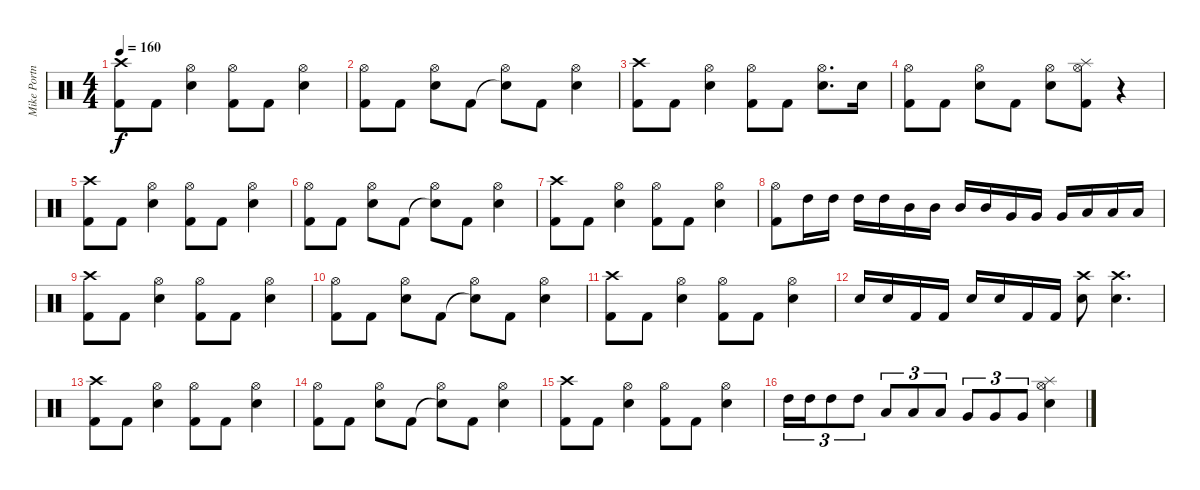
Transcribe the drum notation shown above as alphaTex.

\track ("Mike Portnoy" "Mike Portn") {instrument percussion}
\staff {score}
\articulation defaults
\ts (4 4)
\tempo 160
\clef neutral
\ks c
("Kick (hit) 2" "Crash high (hit)").8{dy f} "Kick (hit) 2".8 ("Electric Snare (hit)" "Hi-Hat (open)").4 ("Kick (hit) 2" "Hi-Hat (open)").8 "Kick (hit) 2".8 ("Electric Snare (hit)" "Hi-Hat (open)").4 |
("Kick (hit) 2" "Hi-Hat (open)").8 "Kick (hit) 2".8 ("Electric Snare (hit)" "Hi-Hat (open)").8 "Kick (hit) 2".8 ("Snare (hit)"{t} "Hi-Hat (open)").8 "Kick (hit) 2".8 ("Electric Snare (hit)" "Hi-Hat (open)").4 |
("Kick (hit) 2" "Crash high (hit)").8 "Kick (hit) 2".8 ("Electric Snare (hit)" "Hi-Hat (open)").4 ("Kick (hit) 2" "Hi-Hat (open)").8 "Kick (hit) 2".8 ("Electric Snare (hit)" "Hi-Hat (open)").8{d} "Electric Snare (hit)".16 |
("Kick (hit) 2" "Hi-Hat (open)").8 "Kick (hit) 2".8 ("Electric Snare (hit)" "Hi-Hat (open)").8 "Kick (hit) 2".8 ("Electric Snare (hit)" "Hi-Hat (open)").8 ("Kick (hit) 2" "Splash (hit)" "Hi-Hat (open)").8 r.4 |
("Kick (hit) 2" "Crash high (hit)").8 "Kick (hit) 2".8 ("Electric Snare (hit)" "Hi-Hat (open)").4 ("Kick (hit) 2" "Hi-Hat (open)").8 "Kick (hit) 2".8 ("Electric Snare (hit)" "Hi-Hat (open)").4 |
("Kick (hit) 2" "Hi-Hat (open)").8 "Kick (hit) 2".8 ("Electric Snare (hit)" "Hi-Hat (open)").8 "Kick (hit) 2".8 ("Snare (hit)"{t} "Hi-Hat (open)").8 "Kick (hit) 2".8 ("Electric Snare (hit)" "Hi-Hat (open)").4 |
("Kick (hit) 2" "Crash high (hit)").8 "Kick (hit) 2".8 ("Electric Snare (hit)" "Hi-Hat (open)").4 ("Kick (hit) 2" "Hi-Hat (open)").8 "Kick (hit) 2".8 ("Electric Snare (hit)" "Hi-Hat (open)").4 |
("Kick (hit) 2" "Hi-Hat (open)").8 "High Tom (hit)".16 "High Tom (hit)".16 "High Tom (hit)".16 "High Tom (hit)".16 "Mid Tom (hit)".16 "Mid Tom (hit)".16 "Mid Tom (hit)".16 "Mid Tom (hit)".16 "Very Low Tom (hit)".16 "Very Low Tom (hit)".16 "Very Low Tom (hit)".16 "Low Floor Tom (hit)".16 "Low Floor Tom (hit)".16 "Low Floor Tom (hit)".16 |
("Kick (hit) 2" "Crash high (hit)").8 "Kick (hit) 2".8 ("Electric Snare (hit)" "Hi-Hat (open)").4 ("Kick (hit) 2" "Hi-Hat (open)").8 "Kick (hit) 2".8 ("Electric Snare (hit)" "Hi-Hat (open)").4 |
("Kick (hit) 2" "Hi-Hat (open)").8 "Kick (hit) 2".8 ("Electric Snare (hit)" "Hi-Hat (open)").8 "Kick (hit) 2".8 ("Snare (hit)"{t} "Hi-Hat (open)").8 "Kick (hit) 2".8 ("Electric Snare (hit)" "Hi-Hat (open)").4 |
("Kick (hit) 2" "Crash high (hit)").8 "Kick (hit) 2".8 ("Electric Snare (hit)" "Hi-Hat (open)").4 ("Kick (hit) 2" "Hi-Hat (open)").8 "Kick (hit) 2".8 ("Electric Snare (hit)" "Hi-Hat (open)").4 |
"Electric Snare (hit)".16 "Electric Snare (hit)".16 "Kick (hit) 2".16 "Kick (hit) 2".16 "Electric Snare (hit)".16 "Electric Snare (hit)".16 "Kick (hit) 2".16 "Kick (hit) 2".16 ("Electric Snare (hit)" "Crash high (hit)").8 ("Electric Snare (hit)" "Crash high (hit)").4{d} |
("Kick (hit) 2" "Crash high (hit)").8 "Kick (hit) 2".8 ("Electric Snare (hit)" "Hi-Hat (open)").4 ("Kick (hit) 2" "Hi-Hat (open)").8 "Kick (hit) 2".8 ("Electric Snare (hit)" "Hi-Hat (open)").4 |
("Kick (hit) 2" "Hi-Hat (open)").8 "Kick (hit) 2".8 ("Electric Snare (hit)" "Hi-Hat (open)").8 "Kick (hit) 2".8 ("Snare (hit)"{t} "Hi-Hat (open)").8 "Kick (hit) 2".8 ("Electric Snare (hit)" "Hi-Hat (open)").4 |
("Kick (hit) 2" "Crash high (hit)").8 "Kick (hit) 2".8 ("Electric Snare (hit)" "Hi-Hat (open)").4 ("Kick (hit) 2" "Hi-Hat (open)").8 "Kick (hit) 2".8 ("Electric Snare (hit)" "Hi-Hat (open)").4 |
"High Tom (hit)".16{tu (3 2)} "High Tom (hit)".16{tu (3 2)} "High Tom (hit)".8{tu (3 2)} "High Tom (hit)".8{tu (3 2)} "Low Tom (hit)".8{tu (3 2)} "Low Tom (hit)".8{tu (3 2)} "Low Tom (hit)".8{tu (3 2)} "Very Low Tom (hit)".8{tu (3 2)} "Very Low Tom (hit)".8{tu (3 2)} "Very Low Tom (hit)".8{tu (3 2)} ("Electric Snare (hit)" "Hi-Hat (open)" "Splash (hit)").4
